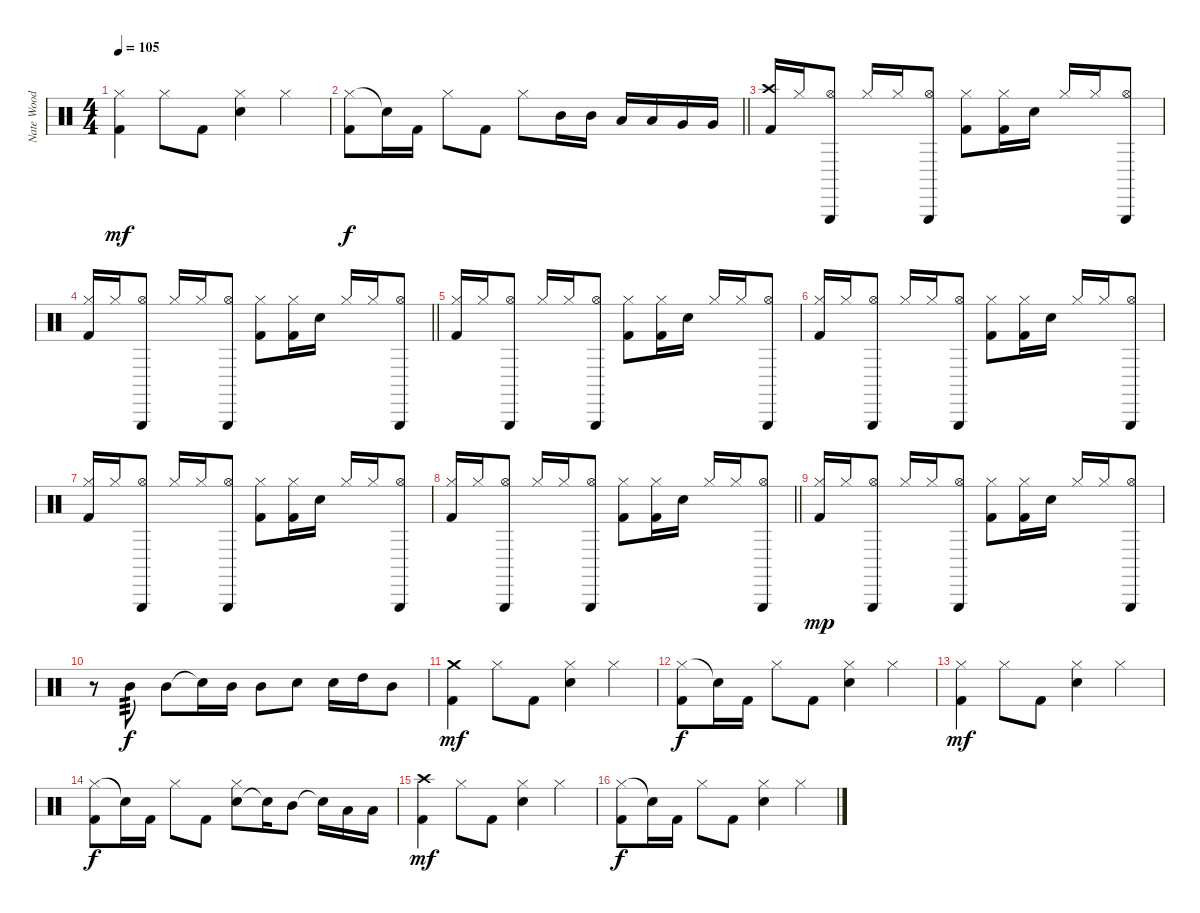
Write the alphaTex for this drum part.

\track ("Nate Wood" "Nate Wood") {instrument percussion}
\staff {score}
\articulation defaults
\ts (4 4)
\tempo 105
\clef neutral
\ks c
("Hi-Hat (closed)" "Kick (hit) 2").4{dy mf} "Hi-Hat (closed)".8 "Kick (hit) 2".8 ("Electric Snare (hit)" "Hi-Hat (closed)").4 "Hi-Hat (closed)".4 |
\barLineRight lightlight
("Hi-Hat (closed)" "Kick (hit) 2").8{dy f} "Snare (hit)"{t}.16 "Kick (hit) 2".16 "Hi-Hat (closed)".8 "Kick (hit) 2".8 "Hi-Hat (closed)".8 "Mid Tom (hit)".16 "Mid Tom (hit)".16 "Low Tom (hit)".16 "Low Tom (hit)".16 "Very Low Tom (hit)".16 "Very Low Tom (hit)".16 |
("Crash high (hit)" "Kick (hit) 2").16 "Hi-Hat (closed)".16 ("Triangle (hit)" "Hi-Hat (open)").8 "Hi-Hat (closed)".16 "Hi-Hat (closed)".16 ("Triangle (hit)" "Hi-Hat (open)").8 ("Hi-Hat (closed)" "Kick (hit) 2").8 ("Hi-Hat (closed)" "Kick (hit) 2").16 "Electric Snare (hit)".16 "Hi-Hat (closed)".16 "Hi-Hat (closed)".16 ("Triangle (hit)" "Hi-Hat (open)").8 |
\barLineRight lightlight
("Hi-Hat (closed)" "Kick (hit) 2").16 "Hi-Hat (closed)".16 ("Triangle (hit)" "Hi-Hat (open)").8 "Hi-Hat (closed)".16 "Hi-Hat (closed)".16 ("Triangle (hit)" "Hi-Hat (open)").8 ("Hi-Hat (closed)" "Kick (hit) 2").8 ("Hi-Hat (closed)" "Kick (hit) 2").16 "Electric Snare (hit)".16 "Hi-Hat (closed)".16 "Hi-Hat (closed)".16 ("Triangle (hit)" "Hi-Hat (open)").8 |
("Hi-Hat (closed)" "Kick (hit) 2").16 "Hi-Hat (closed)".16 ("Triangle (hit)" "Hi-Hat (open)").8 "Hi-Hat (closed)".16 "Hi-Hat (closed)".16 ("Triangle (hit)" "Hi-Hat (open)").8 ("Hi-Hat (closed)" "Kick (hit) 2").8 ("Hi-Hat (closed)" "Kick (hit) 2").16 "Electric Snare (hit)".16 "Hi-Hat (closed)".16 "Hi-Hat (closed)".16 ("Triangle (hit)" "Hi-Hat (open)").8 |
("Hi-Hat (closed)" "Kick (hit) 2").16 "Hi-Hat (closed)".16 ("Triangle (hit)" "Hi-Hat (open)").8 "Hi-Hat (closed)".16 "Hi-Hat (closed)".16 ("Triangle (hit)" "Hi-Hat (open)").8 ("Hi-Hat (closed)" "Kick (hit) 2").8 ("Hi-Hat (closed)" "Kick (hit) 2").16 "Electric Snare (hit)".16 "Hi-Hat (closed)".16 "Hi-Hat (closed)".16 ("Triangle (hit)" "Hi-Hat (open)").8 |
("Hi-Hat (closed)" "Kick (hit) 2").16 "Hi-Hat (closed)".16 ("Triangle (hit)" "Hi-Hat (open)").8 "Hi-Hat (closed)".16 "Hi-Hat (closed)".16 ("Triangle (hit)" "Hi-Hat (open)").8 ("Hi-Hat (closed)" "Kick (hit) 2").8 ("Hi-Hat (closed)" "Kick (hit) 2").16 "Electric Snare (hit)".16 "Hi-Hat (closed)".16 "Hi-Hat (closed)".16 ("Triangle (hit)" "Hi-Hat (open)").8 |
\barLineRight lightlight
("Hi-Hat (closed)" "Kick (hit) 2").16 "Hi-Hat (closed)".16 ("Triangle (hit)" "Hi-Hat (open)").8 "Hi-Hat (closed)".16 "Hi-Hat (closed)".16 ("Triangle (hit)" "Hi-Hat (open)").8 ("Hi-Hat (closed)" "Kick (hit) 2").8 ("Hi-Hat (closed)" "Kick (hit) 2").16 "Electric Snare (hit)".16 "Hi-Hat (closed)".16 "Hi-Hat (closed)".16 ("Triangle (hit)" "Hi-Hat (open)").8 |
("Hi-Hat (closed)" "Kick (hit) 2").16{dy mp} "Hi-Hat (closed)".16 ("Triangle (hit)" "Hi-Hat (open)").8 "Hi-Hat (closed)".16 "Hi-Hat (closed)".16 ("Triangle (hit)" "Hi-Hat (open)").8 ("Hi-Hat (closed)" "Kick (hit) 2").8 ("Hi-Hat (closed)" "Kick (hit) 2").16 "Electric Snare (hit)".16 "Hi-Hat (closed)".16 "Hi-Hat (closed)".16 ("Triangle (hit)" "Hi-Hat (open)").8 |
r.8 "Mid Tom (hit)".8{tp 3 dy f} "Mid Tom (hit)".8 "Snare (hit)"{t}.16 "Mid Tom (hit)".16 "Mid Tom (hit)".8 "Electric Snare (hit)".8 "Electric Snare (hit)".16 "High Tom (hit)".16 "Mid Tom (hit)".8 |
("Crash medium (hit)" "Kick (hit) 2").4{dy mf} "Hi-Hat (closed)".8 "Kick (hit) 2".8 ("Electric Snare (hit)" "Hi-Hat (closed)").4 "Hi-Hat (closed)".4 |
("Hi-Hat (closed)" "Kick (hit) 2").8{dy f} "Snare (hit)"{t}.16 "Kick (hit) 2".16 "Hi-Hat (closed)".8 "Kick (hit) 2".8 ("Electric Snare (hit)" "Hi-Hat (closed)").4 "Hi-Hat (closed)".4 |
("Hi-Hat (closed)" "Kick (hit) 2").4{dy mf} "Hi-Hat (closed)".8 "Kick (hit) 2".8 ("Electric Snare (hit)" "Hi-Hat (closed)").4 "Hi-Hat (closed)".4 |
("Hi-Hat (closed)" "Kick (hit) 2").8{dy f} "Snare (hit)"{t}.16 "Kick (hit) 2".16 "Hi-Hat (closed)".8 "Kick (hit) 2".8 ("Electric Snare (hit)" "Hi-Hat (closed)").8 "Snare (hit)"{t}.16 "Mid Tom (hit)".8 "Snare (hit)"{t}.16 "Low Tom (hit)".16 "Low Tom (hit)".16 |
("Crash high (hit)" "Kick (hit) 2").4{dy mf} "Hi-Hat (closed)".8 "Kick (hit) 2".8 ("Electric Snare (hit)" "Hi-Hat (closed)").4 "Hi-Hat (closed)".4 |
("Hi-Hat (closed)" "Kick (hit) 2").8{dy f} "Snare (hit)"{t}.16 "Kick (hit) 2".16 "Hi-Hat (closed)".8 "Kick (hit) 2".8 ("Electric Snare (hit)" "Hi-Hat (closed)").4 "Hi-Hat (closed)".4
